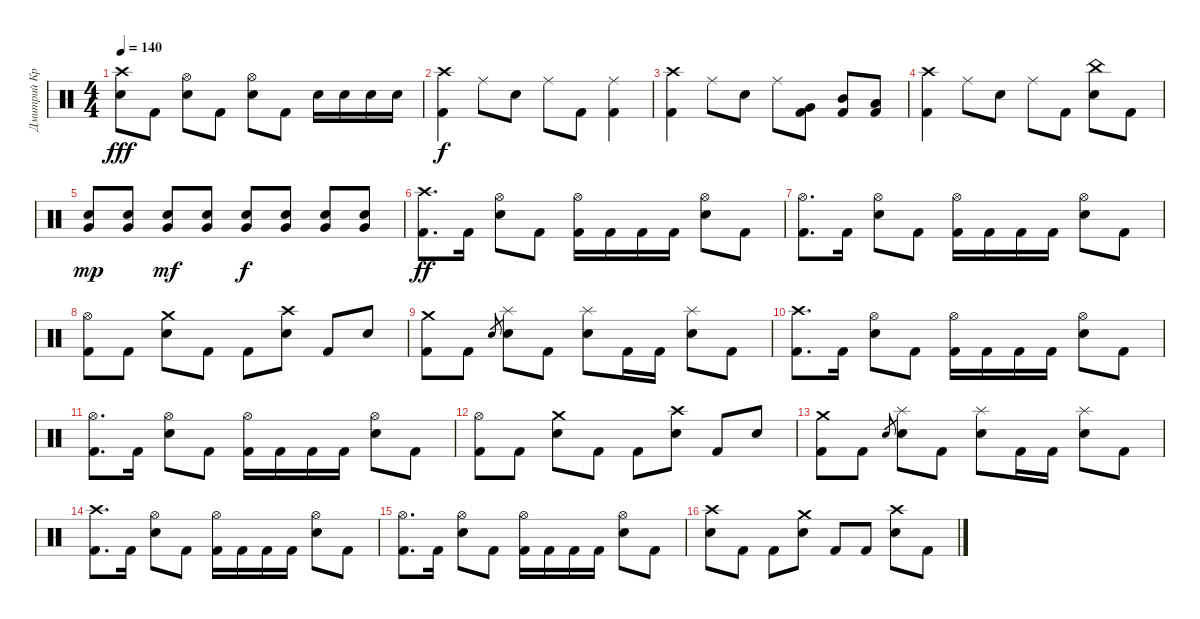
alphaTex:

\track ("Дмитрий Кривенков" "Дмитрий Кр") {instrument percussion}
\staff {score}
\articulation defaults
\ts (4 4)
\tempo 140
\clef neutral
\ks c
("Crash high (hit)" "Electric Snare (hit)").8{dy fff} "Kick (hit) 2".8 ("Hi-Hat (open)" "Electric Snare (hit)").8 "Kick (hit) 2".8 ("Hi-Hat (open)" "Electric Snare (hit)").8 "Kick (hit) 2".8 "Electric Snare (hit)".16 "Electric Snare (hit)".16 "Electric Snare (hit)".16 "Electric Snare (hit)".16 |
("Crash high (hit)" "Kick (hit) 2").4{dy f} "Ride (middle)".8 "Electric Snare (hit)".8 "Ride (middle)".8 "Kick (hit) 2".8 ("Ride (middle)" "Kick (hit) 2").4 |
("Crash high (hit)" "Kick (hit) 2").4 "Ride (middle)".8 "Electric Snare (hit)".8 "Ride (middle)".8 ("Very Low Tom (hit)" "Kick (hit) 2").8 ("Mid Tom (hit)" "Kick (hit) 2").8 ("Low Tom (hit)" "Kick (hit) 2").8 |
("Crash high (hit)" "Kick (hit) 2").4 "Ride (middle)".8 "Electric Snare (hit)".8 "Ride (middle)".8 "Kick (hit) 2".8 ("China (hit)" "Electric Snare (hit)").8 "Kick (hit) 2".8 |
("Electric Snare (hit)" "Very Low Tom (hit)").8{dy mp} ("Electric Snare (hit)" "Very Low Tom (hit)").8 ("Electric Snare (hit)" "Very Low Tom (hit)").8{dy mf} ("Electric Snare (hit)" "Very Low Tom (hit)").8 ("Electric Snare (hit)" "Very Low Tom (hit)").8{dy f} ("Electric Snare (hit)" "Very Low Tom (hit)").8 ("Electric Snare (hit)" "Very Low Tom (hit)").8 ("Electric Snare (hit)" "Very Low Tom (hit)").8 |
("Crash high (hit)" "Kick (hit) 2").8{d dy ff} "Kick (hit) 2".16 ("Hi-Hat (open)" "Electric Snare (hit)").8 "Kick (hit) 2".8 ("Hi-Hat (open)" "Kick (hit) 2").16 "Kick (hit) 2".16 "Kick (hit) 2".16 "Kick (hit) 2".16 ("Hi-Hat (open)" "Electric Snare (hit)").8 "Kick (hit) 2".8 |
("Hi-Hat (open)" "Kick (hit) 2").8{d} "Kick (hit) 2".16 ("Hi-Hat (open)" "Electric Snare (hit)").8 "Kick (hit) 2".8 ("Hi-Hat (open)" "Kick (hit) 2").16 "Kick (hit) 2".16 "Kick (hit) 2".16 "Kick (hit) 2".16 ("Hi-Hat (open)" "Electric Snare (hit)").8 "Kick (hit) 2".8 |
("Hi-Hat (open)" "Kick (hit) 2").8 "Kick (hit) 2".8 ("Crash medium (hit)" "Electric Snare (hit)").8 "Kick (hit) 2".8 "Kick (hit) 2".8 ("Crash high (hit)" "Electric Snare (hit)").8 "Kick (hit) 2".8 "Electric Snare (hit)".8 |
("Crash medium (hit)" "Kick (hit) 2").8 "Kick (hit) 2".8 "Electric Snare (hit)".8{gr} ("Splash (hit)" "Electric Snare (hit)").8 "Kick (hit) 2".8 ("Splash (hit)" "Electric Snare (hit)").8 "Kick (hit) 2".16 "Kick (hit) 2".16 ("Splash (hit)" "Electric Snare (hit)").8 "Kick (hit) 2".8 |
("Crash high (hit)" "Kick (hit) 2").8{d} "Kick (hit) 2".16 ("Hi-Hat (open)" "Electric Snare (hit)").8 "Kick (hit) 2".8 ("Hi-Hat (open)" "Kick (hit) 2").16 "Kick (hit) 2".16 "Kick (hit) 2".16 "Kick (hit) 2".16 ("Hi-Hat (open)" "Electric Snare (hit)").8 "Kick (hit) 2".8 |
("Hi-Hat (open)" "Kick (hit) 2").8{d} "Kick (hit) 2".16 ("Hi-Hat (open)" "Electric Snare (hit)").8 "Kick (hit) 2".8 ("Hi-Hat (open)" "Kick (hit) 2").16 "Kick (hit) 2".16 "Kick (hit) 2".16 "Kick (hit) 2".16 ("Hi-Hat (open)" "Electric Snare (hit)").8 "Kick (hit) 2".8 |
("Hi-Hat (open)" "Kick (hit) 2").8 "Kick (hit) 2".8 ("Crash medium (hit)" "Electric Snare (hit)").8 "Kick (hit) 2".8 "Kick (hit) 2".8 ("Crash high (hit)" "Electric Snare (hit)").8 "Kick (hit) 2".8 "Electric Snare (hit)".8 |
("Crash medium (hit)" "Kick (hit) 2").8 "Kick (hit) 2".8 "Electric Snare (hit)".8{gr} ("Splash (hit)" "Electric Snare (hit)").8 "Kick (hit) 2".8 ("Splash (hit)" "Electric Snare (hit)").8 "Kick (hit) 2".16 "Kick (hit) 2".16 ("Splash (hit)" "Electric Snare (hit)").8 "Kick (hit) 2".8 |
("Crash high (hit)" "Kick (hit) 2").8{d} "Kick (hit) 2".16 ("Hi-Hat (open)" "Electric Snare (hit)").8 "Kick (hit) 2".8 ("Hi-Hat (open)" "Kick (hit) 2").16 "Kick (hit) 2".16 "Kick (hit) 2".16 "Kick (hit) 2".16 ("Hi-Hat (open)" "Electric Snare (hit)").8 "Kick (hit) 2".8 |
("Hi-Hat (open)" "Kick (hit) 2").8{d} "Kick (hit) 2".16 ("Hi-Hat (open)" "Electric Snare (hit)").8 "Kick (hit) 2".8 ("Hi-Hat (open)" "Kick (hit) 2").16 "Kick (hit) 2".16 "Kick (hit) 2".16 "Kick (hit) 2".16 ("Hi-Hat (open)" "Electric Snare (hit)").8 "Kick (hit) 2".8 |
("Crash high (hit)" "Electric Snare (hit)").8 "Kick (hit) 2".8 "Kick (hit) 2".8 ("Crash medium (hit)" "Electric Snare (hit)").8 "Kick (hit) 2".8 "Kick (hit) 2".8 ("Crash high (hit)" "Electric Snare (hit)").8 "Kick (hit) 2".8
